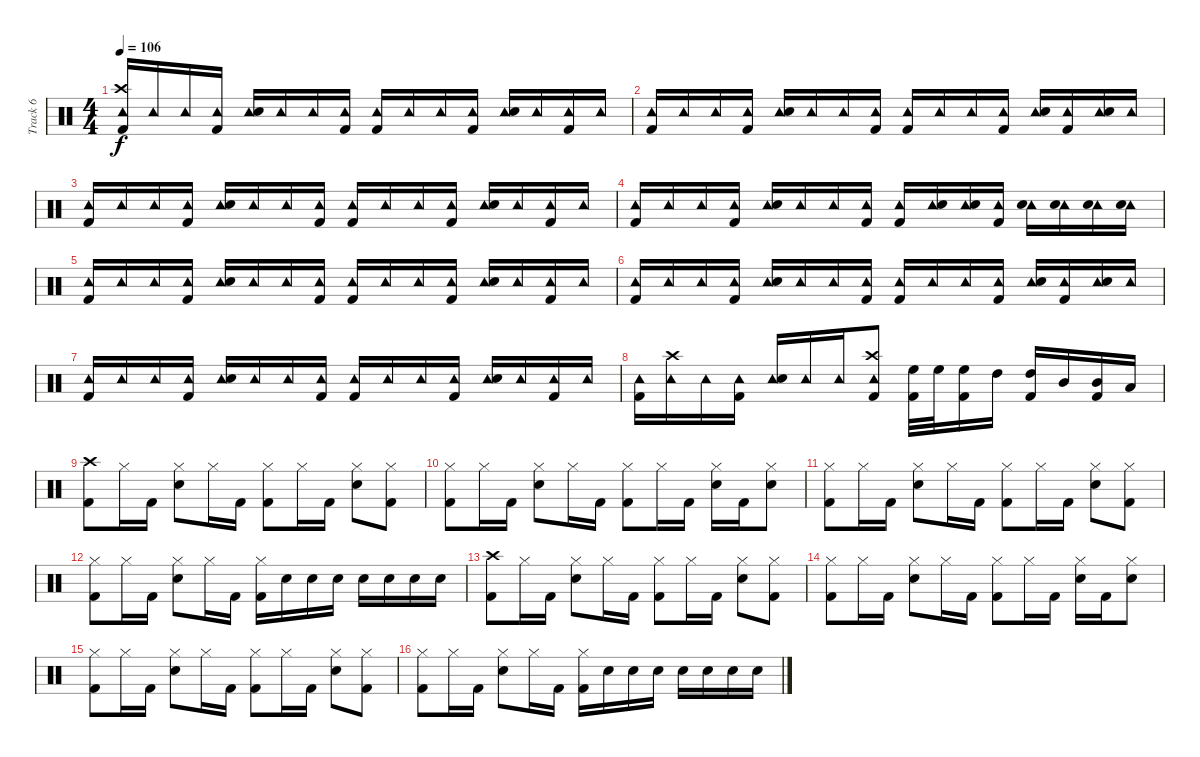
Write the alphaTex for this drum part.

\track ("Track 6" "Track 6") {instrument percussion}
\staff {score}
\articulation defaults
\ts (4 4)
\tempo 106
\clef neutral
\ks c
("Tambourine (hit)" "Crash high (hit)" "Kick (hit) 2").16{dy f} "Tambourine (hit)".16 "Tambourine (hit)".16 ("Tambourine (hit)" "Kick (hit) 2").16 ("Tambourine (hit)" "Snare (hit) 2").16 "Tambourine (hit)".16 "Tambourine (hit)".16 ("Tambourine (hit)" "Kick (hit) 2").16 ("Tambourine (hit)" "Kick (hit) 2").16 "Tambourine (hit)".16 "Tambourine (hit)".16 ("Tambourine (hit)" "Kick (hit) 2").16 ("Tambourine (hit)" "Snare (hit) 2").16 "Tambourine (hit)".16 ("Tambourine (hit)" "Kick (hit) 2").16 "Tambourine (hit)".16 |
("Tambourine (hit)" "Kick (hit) 2").16 "Tambourine (hit)".16 "Tambourine (hit)".16 ("Tambourine (hit)" "Kick (hit) 2").16 ("Tambourine (hit)" "Snare (hit) 2").16 "Tambourine (hit)".16 "Tambourine (hit)".16 ("Tambourine (hit)" "Kick (hit) 2").16 ("Tambourine (hit)" "Kick (hit) 2").16 "Tambourine (hit)".16 "Tambourine (hit)".16 ("Tambourine (hit)" "Kick (hit) 2").16 ("Tambourine (hit)" "Snare (hit) 2").16 ("Tambourine (hit)" "Kick (hit) 2").16 ("Tambourine (hit)" "Snare (hit) 2").16 "Tambourine (hit)".16 |
("Tambourine (hit)" "Kick (hit) 2").16 "Tambourine (hit)".16 "Tambourine (hit)".16 ("Tambourine (hit)" "Kick (hit) 2").16 ("Tambourine (hit)" "Snare (hit) 2").16 "Tambourine (hit)".16 "Tambourine (hit)".16 ("Tambourine (hit)" "Kick (hit) 2").16 ("Tambourine (hit)" "Kick (hit) 2").16 "Tambourine (hit)".16 "Tambourine (hit)".16 ("Tambourine (hit)" "Kick (hit) 2").16 ("Tambourine (hit)" "Snare (hit) 2").16 "Tambourine (hit)".16 ("Tambourine (hit)" "Kick (hit) 2").16 "Tambourine (hit)".16 |
("Tambourine (hit)" "Kick (hit) 2").16 "Tambourine (hit)".16 "Tambourine (hit)".16 ("Tambourine (hit)" "Kick (hit) 2").16 ("Tambourine (hit)" "Snare (hit) 2").16 "Tambourine (hit)".16 "Tambourine (hit)".16 ("Tambourine (hit)" "Kick (hit) 2").16 ("Tambourine (hit)" "Kick (hit) 2").16 ("Tambourine (hit)" "Snare (hit) 2").16 ("Tambourine (hit)" "Snare (hit) 2").16 ("Tambourine (hit)" "Kick (hit) 2").16 ("Tambourine (hit)" "Snare (hit) 2").16 ("Tambourine (hit)" "Snare (hit) 2").16 ("Tambourine (hit)" "Snare (hit) 2").16 ("Tambourine (hit)" "Snare (hit) 2").16 |
("Tambourine (hit)" "Kick (hit) 2").16 "Tambourine (hit)".16 "Tambourine (hit)".16 ("Tambourine (hit)" "Kick (hit) 2").16 ("Tambourine (hit)" "Snare (hit) 2").16 "Tambourine (hit)".16 "Tambourine (hit)".16 ("Tambourine (hit)" "Kick (hit) 2").16 ("Tambourine (hit)" "Kick (hit) 2").16 "Tambourine (hit)".16 "Tambourine (hit)".16 ("Tambourine (hit)" "Kick (hit) 2").16 ("Tambourine (hit)" "Snare (hit) 2").16 "Tambourine (hit)".16 ("Tambourine (hit)" "Kick (hit) 2").16 "Tambourine (hit)".16 |
("Tambourine (hit)" "Kick (hit) 2").16 "Tambourine (hit)".16 "Tambourine (hit)".16 ("Tambourine (hit)" "Kick (hit) 2").16 ("Tambourine (hit)" "Snare (hit) 2").16 "Tambourine (hit)".16 "Tambourine (hit)".16 ("Tambourine (hit)" "Kick (hit) 2").16 ("Tambourine (hit)" "Kick (hit) 2").16 "Tambourine (hit)".16 "Tambourine (hit)".16 ("Tambourine (hit)" "Kick (hit) 2").16 ("Tambourine (hit)" "Snare (hit) 2").16 ("Tambourine (hit)" "Kick (hit) 2").16 ("Tambourine (hit)" "Snare (hit) 2").16 "Tambourine (hit)".16 |
("Tambourine (hit)" "Kick (hit) 2").16 "Tambourine (hit)".16 "Tambourine (hit)".16 ("Tambourine (hit)" "Kick (hit) 2").16 ("Tambourine (hit)" "Snare (hit) 2").16 "Tambourine (hit)".16 "Tambourine (hit)".16 ("Tambourine (hit)" "Kick (hit) 2").16 ("Tambourine (hit)" "Kick (hit) 2").16 "Tambourine (hit)".16 "Tambourine (hit)".16 ("Tambourine (hit)" "Kick (hit) 2").16 ("Tambourine (hit)" "Snare (hit) 2").16 "Tambourine (hit)".16 ("Tambourine (hit)" "Kick (hit) 2").16 "Tambourine (hit)".16 |
("Tambourine (hit)" "Kick (hit) 2").16 ("Tambourine (hit)" "Crash high (hit)").16 "Tambourine (hit)".16 ("Tambourine (hit)" "Kick (hit) 2").16 ("Tambourine (hit)" "Snare (hit) 2").16 "Tambourine (hit)".16 "Tambourine (hit)".16 ("Tambourine (hit)" "Crash high (hit)" "Kick (hit) 2").8 ("High Floor Tom (hit)" "Kick (hit) 2").32 "High Floor Tom (hit)".32 ("High Floor Tom (hit)" "Kick (hit) 2").16 "High Tom (hit)".16 ("High Tom (hit)" "Kick (hit) 2").16 "Mid Tom (hit)".16 ("Mid Tom (hit)" "Kick (hit) 2").16 "Low Tom (hit)".16 |
("Crash high (hit)" "Kick (hit) 2").8 "Hi-Hat (closed)".16 "Kick (hit) 2".16 ("Hi-Hat (closed)" "Snare (hit) 2").8 "Hi-Hat (closed)".16 "Kick (hit) 2".16 ("Hi-Hat (closed)" "Kick (hit) 2").8 "Hi-Hat (closed)".16 "Kick (hit) 2".16 ("Hi-Hat (closed)" "Snare (hit) 2").8 ("Hi-Hat (closed)" "Kick (hit) 2").8 |
("Hi-Hat (closed)" "Kick (hit) 2").8 "Hi-Hat (closed)".16 "Kick (hit) 2".16 ("Hi-Hat (closed)" "Snare (hit) 2").8 "Hi-Hat (closed)".16 "Kick (hit) 2".16 ("Hi-Hat (closed)" "Kick (hit) 2").8 "Hi-Hat (closed)".16 "Kick (hit) 2".16 ("Hi-Hat (closed)" "Snare (hit) 2").16 "Kick (hit) 2".16 ("Hi-Hat (closed)" "Snare (hit) 2").8 |
("Hi-Hat (closed)" "Kick (hit) 2").8 "Hi-Hat (closed)".16 "Kick (hit) 2".16 ("Hi-Hat (closed)" "Snare (hit) 2").8 "Hi-Hat (closed)".16 "Kick (hit) 2".16 ("Hi-Hat (closed)" "Kick (hit) 2").8 "Hi-Hat (closed)".16 "Kick (hit) 2".16 ("Hi-Hat (closed)" "Snare (hit) 2").8 ("Hi-Hat (closed)" "Kick (hit) 2").8 |
("Hi-Hat (closed)" "Kick (hit) 2").8 "Hi-Hat (closed)".16 "Kick (hit) 2".16 ("Hi-Hat (closed)" "Snare (hit) 2").8 "Hi-Hat (closed)".16 "Kick (hit) 2".16 ("Hi-Hat (closed)" "Kick (hit) 2").16 "Snare (hit) 2".16 "Snare (hit) 2".16 "Snare (hit) 2".16 "Snare (hit) 2".16 "Snare (hit) 2".16 "Snare (hit) 2".16 "Snare (hit) 2".16 |
("Crash high (hit)" "Kick (hit) 2").8 "Hi-Hat (closed)".16 "Kick (hit) 2".16 ("Hi-Hat (closed)" "Snare (hit) 2").8 "Hi-Hat (closed)".16 "Kick (hit) 2".16 ("Hi-Hat (closed)" "Kick (hit) 2").8 "Hi-Hat (closed)".16 "Kick (hit) 2".16 ("Hi-Hat (closed)" "Snare (hit) 2").8 ("Hi-Hat (closed)" "Kick (hit) 2").8 |
("Hi-Hat (closed)" "Kick (hit) 2").8 "Hi-Hat (closed)".16 "Kick (hit) 2".16 ("Hi-Hat (closed)" "Snare (hit) 2").8 "Hi-Hat (closed)".16 "Kick (hit) 2".16 ("Hi-Hat (closed)" "Kick (hit) 2").8 "Hi-Hat (closed)".16 "Kick (hit) 2".16 ("Hi-Hat (closed)" "Snare (hit) 2").16 "Kick (hit) 2".16 ("Hi-Hat (closed)" "Snare (hit) 2").8 |
("Hi-Hat (closed)" "Kick (hit) 2").8 "Hi-Hat (closed)".16 "Kick (hit) 2".16 ("Hi-Hat (closed)" "Snare (hit) 2").8 "Hi-Hat (closed)".16 "Kick (hit) 2".16 ("Hi-Hat (closed)" "Kick (hit) 2").8 "Hi-Hat (closed)".16 "Kick (hit) 2".16 ("Hi-Hat (closed)" "Snare (hit) 2").8 ("Hi-Hat (closed)" "Kick (hit) 2").8 |
("Hi-Hat (closed)" "Kick (hit) 2").8 "Hi-Hat (closed)".16 "Kick (hit) 2".16 ("Hi-Hat (closed)" "Snare (hit) 2").8 "Hi-Hat (closed)".16 "Kick (hit) 2".16 ("Hi-Hat (closed)" "Kick (hit) 2").16 "Snare (hit) 2".16 "Snare (hit) 2".16 "Snare (hit) 2".16 "Snare (hit) 2".16 "Snare (hit) 2".16 "Snare (hit) 2".16 "Snare (hit) 2".16
